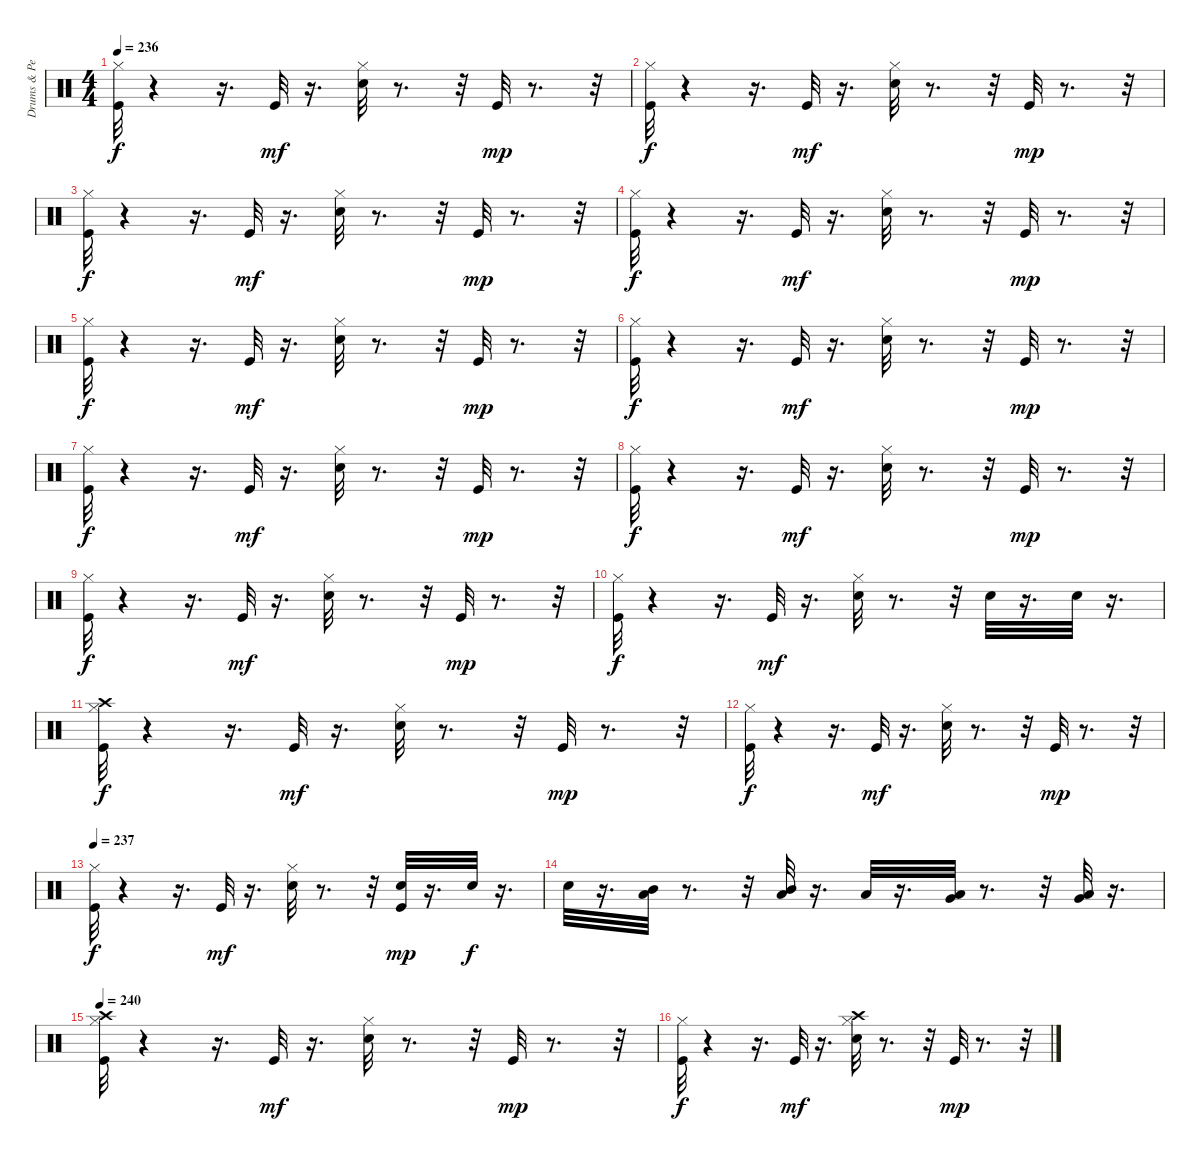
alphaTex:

\track ("Drums & Percussion" "Drums & Pe") {instrument percussion}
\staff {score}
\articulation defaults
\ts (4 4)
\tempo 236
\clef neutral
\ks c
("Kick (hit)" "Hi-Hat (closed)").32{dy f} r.4 r.16{d} "Kick (hit)".32{dy mf} r.16{d} ("Hi-Hat (closed)" "Snare (hit) 2").32 r.8{d} r.32 "Kick (hit)".32{dy mp} r.8{d} r.32 |
("Kick (hit)" "Hi-Hat (closed)").32{dy f} r.4 r.16{d} "Kick (hit)".32{dy mf} r.16{d} ("Hi-Hat (closed)" "Snare (hit) 2").32 r.8{d} r.32 "Kick (hit)".32{dy mp} r.8{d} r.32 |
("Kick (hit)" "Hi-Hat (closed)").32{dy f} r.4 r.16{d} "Kick (hit)".32{dy mf} r.16{d} ("Hi-Hat (closed)" "Snare (hit) 2").32 r.8{d} r.32 "Kick (hit)".32{dy mp} r.8{d} r.32 |
("Kick (hit)" "Hi-Hat (closed)").32{dy f} r.4 r.16{d} "Kick (hit)".32{dy mf} r.16{d} ("Hi-Hat (closed)" "Snare (hit) 2").32 r.8{d} r.32 "Kick (hit)".32{dy mp} r.8{d} r.32 |
("Kick (hit)" "Hi-Hat (closed)").32{dy f} r.4 r.16{d} "Kick (hit)".32{dy mf} r.16{d} ("Hi-Hat (closed)" "Snare (hit) 2").32 r.8{d} r.32 "Kick (hit)".32{dy mp} r.8{d} r.32 |
("Kick (hit)" "Hi-Hat (closed)").32{dy f} r.4 r.16{d} "Kick (hit)".32{dy mf} r.16{d} ("Hi-Hat (closed)" "Snare (hit) 2").32 r.8{d} r.32 "Kick (hit)".32{dy mp} r.8{d} r.32 |
("Kick (hit)" "Hi-Hat (closed)").32{dy f} r.4 r.16{d} "Kick (hit)".32{dy mf} r.16{d} ("Hi-Hat (closed)" "Snare (hit) 2").32 r.8{d} r.32 "Kick (hit)".32{dy mp} r.8{d} r.32 |
("Kick (hit)" "Hi-Hat (closed)").32{dy f} r.4 r.16{d} "Kick (hit)".32{dy mf} r.16{d} ("Hi-Hat (closed)" "Snare (hit) 2").32 r.8{d} r.32 "Kick (hit)".32{dy mp} r.8{d} r.32 |
("Kick (hit)" "Hi-Hat (closed)").32{dy f} r.4 r.16{d} "Kick (hit)".32{dy mf} r.16{d} ("Hi-Hat (closed)" "Snare (hit) 2").32 r.8{d} r.32 "Kick (hit)".32{dy mp} r.8{d} r.32 |
("Kick (hit)" "Hi-Hat (closed)").32{dy f} r.4 r.16{d} "Kick (hit)".32{dy mf} r.16{d} ("Hi-Hat (closed)" "Snare (hit) 2").32 r.8{d} r.32 "Snare (hit) 2".32 r.16{d} "Snare (hit) 2".32 r.16{d} |
("Crash high (hit)" "Kick (hit)" "Hi-Hat (closed)").32{dy f} r.4 r.16{d} "Kick (hit)".32{dy mf} r.16{d} ("Hi-Hat (closed)" "Snare (hit) 2").32 r.8{d} r.32 "Kick (hit)".32{dy mp} r.8{d} r.32 |
("Kick (hit)" "Hi-Hat (closed)").32{dy f} r.4 r.16{d} "Kick (hit)".32{dy mf} r.16{d} ("Hi-Hat (closed)" "Snare (hit) 2").32 r.8{d} r.32 "Kick (hit)".32{dy mp} r.8{d} r.32 |
\tempo 237
("Kick (hit)" "Hi-Hat (closed)").32{dy f} r.4 r.16{d} "Kick (hit)".32{dy mf} r.16{d} ("Hi-Hat (closed)" "Snare (hit) 2").32 r.8{d} r.32 ("Kick (hit)" "Snare (hit) 2").32{dy mp} r.16{d} "Snare (hit) 2".32{dy f} r.16{d} |
"Snare (hit) 2".32 r.16{d} ("Low Tom (hit)" "Mid Tom (hit)").32 r.8{d} r.32 ("Mid Tom (hit)" "Low Tom (hit)").32 r.16{d} "Low Tom (hit)".32 r.16{d} ("Low Floor Tom (hit)" "Very Low Tom (hit)").32 r.8{d} r.32 ("Low Floor Tom (hit)" "Very Low Tom (hit)").32 r.16{d} |
\tempo 240
("Crash high (hit)" "Kick (hit)" "Hi-Hat (closed)").32 r.4 r.16{d} "Kick (hit)".32{dy mf} r.16{d} ("Hi-Hat (closed)" "Snare (hit) 2").32 r.8{d} r.32 "Kick (hit)".32{dy mp} r.8{d} r.32 |
("Kick (hit)" "Hi-Hat (closed)").32{dy f} r.4 r.16{d} "Kick (hit)".32{dy mf} r.16{d} ("Crash high (hit)" "Hi-Hat (closed)" "Snare (hit) 2").32 r.8{d} r.32 "Kick (hit)".32{dy mp} r.8{d} r.32
